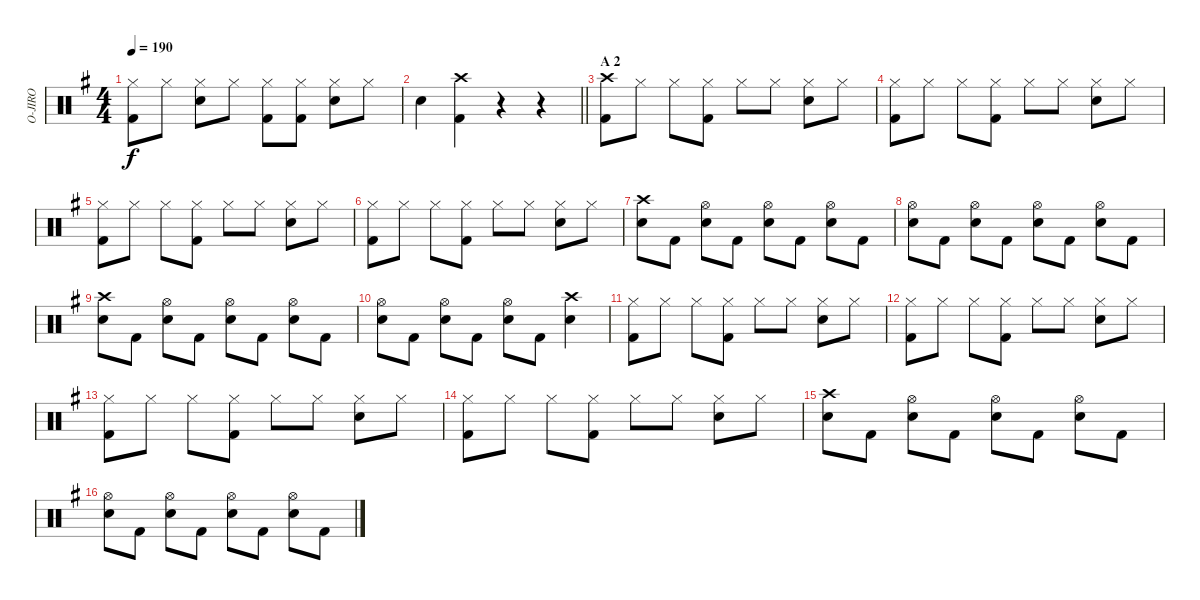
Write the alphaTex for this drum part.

\track ("O-JIRO" "O-JIRO") {instrument percussion}
\staff {score}
\articulation defaults
\ts (4 4)
\tempo 190
\clef neutral
\ks g
("Hi-Hat (closed)" "Kick (hit) 2").8{dy f} "Hi-Hat (closed)".8 ("Hi-Hat (closed)" "Snare (hit) 2").8 "Hi-Hat (closed)".8 ("Hi-Hat (closed)" "Kick (hit) 2").8 ("Hi-Hat (closed)" "Kick (hit) 2").8 ("Hi-Hat (closed)" "Snare (hit) 2").8 "Hi-Hat (closed)".8 |
\barLineRight lightlight "Snare (hit) 2".4
("Crash high (hit)" "Kick (hit) 2").4 r.4 r.4 |
\section ("" "A 2")
("Crash high (hit)" "Kick (hit) 2").8 "Hi-Hat (closed)".8 "Hi-Hat (closed)".8 ("Hi-Hat (closed)" "Kick (hit) 2").8 "Hi-Hat (closed)".8 "Hi-Hat (closed)".8 ("Hi-Hat (closed)" "Snare (hit) 2").8 "Hi-Hat (closed)".8 |
("Hi-Hat (closed)" "Kick (hit) 2").8 "Hi-Hat (closed)".8 "Hi-Hat (closed)".8 ("Hi-Hat (closed)" "Kick (hit) 2").8 "Hi-Hat (closed)".8 "Hi-Hat (closed)".8 ("Hi-Hat (closed)" "Snare (hit) 2").8 "Hi-Hat (closed)".8 |
("Hi-Hat (closed)" "Kick (hit) 2").8 "Hi-Hat (closed)".8 "Hi-Hat (closed)".8 ("Hi-Hat (closed)" "Kick (hit) 2").8 "Hi-Hat (closed)".8 "Hi-Hat (closed)".8 ("Hi-Hat (closed)" "Snare (hit) 2").8 "Hi-Hat (closed)".8 |
("Hi-Hat (closed)" "Kick (hit) 2").8 "Hi-Hat (closed)".8 "Hi-Hat (closed)".8 ("Hi-Hat (closed)" "Kick (hit) 2").8 "Hi-Hat (closed)".8 "Hi-Hat (closed)".8 ("Hi-Hat (closed)" "Snare (hit) 2").8 "Hi-Hat (closed)".8 |
("Crash high (hit)" "Snare (hit) 2").8 "Kick (hit) 2".8 ("Hi-Hat (open)" "Snare (hit) 2").8 "Kick (hit) 2".8 ("Hi-Hat (open)" "Snare (hit) 2").8 "Kick (hit) 2".8 ("Hi-Hat (open)" "Snare (hit) 2").8 "Kick (hit) 2".8 |
("Hi-Hat (open)" "Snare (hit) 2").8 "Kick (hit) 2".8 ("Hi-Hat (open)" "Snare (hit) 2").8 "Kick (hit) 2".8 ("Hi-Hat (open)" "Snare (hit) 2").8 "Kick (hit) 2".8 ("Hi-Hat (open)" "Snare (hit) 2").8 "Kick (hit) 2".8 |
("Crash high (hit)" "Snare (hit) 2").8 "Kick (hit) 2".8 ("Hi-Hat (open)" "Snare (hit) 2").8 "Kick (hit) 2".8 ("Hi-Hat (open)" "Snare (hit) 2").8 "Kick (hit) 2".8 ("Hi-Hat (open)" "Snare (hit) 2").8 "Kick (hit) 2".8 |
("Hi-Hat (open)" "Snare (hit) 2").8 "Kick (hit) 2".8 ("Hi-Hat (open)" "Snare (hit) 2").8 "Kick (hit) 2".8 ("Hi-Hat (open)" "Snare (hit) 2").8 "Kick (hit) 2".8 ("Crash high (hit)" "Snare (hit) 2").4 |
("Hi-Hat (closed)" "Kick (hit) 2").8 "Hi-Hat (closed)".8 "Hi-Hat (closed)".8 ("Hi-Hat (closed)" "Kick (hit) 2").8 "Hi-Hat (closed)".8 "Hi-Hat (closed)".8 ("Hi-Hat (closed)" "Snare (hit) 2").8 "Hi-Hat (closed)".8 |
("Hi-Hat (closed)" "Kick (hit) 2").8 "Hi-Hat (closed)".8 "Hi-Hat (closed)".8 ("Hi-Hat (closed)" "Kick (hit) 2").8 "Hi-Hat (closed)".8 "Hi-Hat (closed)".8 ("Hi-Hat (closed)" "Snare (hit) 2").8 "Hi-Hat (closed)".8 |
("Hi-Hat (closed)" "Kick (hit) 2").8 "Hi-Hat (closed)".8 "Hi-Hat (closed)".8 ("Hi-Hat (closed)" "Kick (hit) 2").8 "Hi-Hat (closed)".8 "Hi-Hat (closed)".8 ("Hi-Hat (closed)" "Snare (hit) 2").8 "Hi-Hat (closed)".8 |
("Hi-Hat (closed)" "Kick (hit) 2").8 "Hi-Hat (closed)".8 "Hi-Hat (closed)".8 ("Hi-Hat (closed)" "Kick (hit) 2").8 "Hi-Hat (closed)".8 "Hi-Hat (closed)".8 ("Hi-Hat (closed)" "Snare (hit) 2").8 "Hi-Hat (closed)".8 |
("Crash high (hit)" "Snare (hit) 2").8 "Kick (hit) 2".8 ("Hi-Hat (open)" "Snare (hit) 2").8 "Kick (hit) 2".8 ("Hi-Hat (open)" "Snare (hit) 2").8 "Kick (hit) 2".8 ("Hi-Hat (open)" "Snare (hit) 2").8 "Kick (hit) 2".8 |
("Hi-Hat (open)" "Snare (hit) 2").8 "Kick (hit) 2".8 ("Hi-Hat (open)" "Snare (hit) 2").8 "Kick (hit) 2".8 ("Hi-Hat (open)" "Snare (hit) 2").8 "Kick (hit) 2".8 ("Hi-Hat (open)" "Snare (hit) 2").8 "Kick (hit) 2".8
